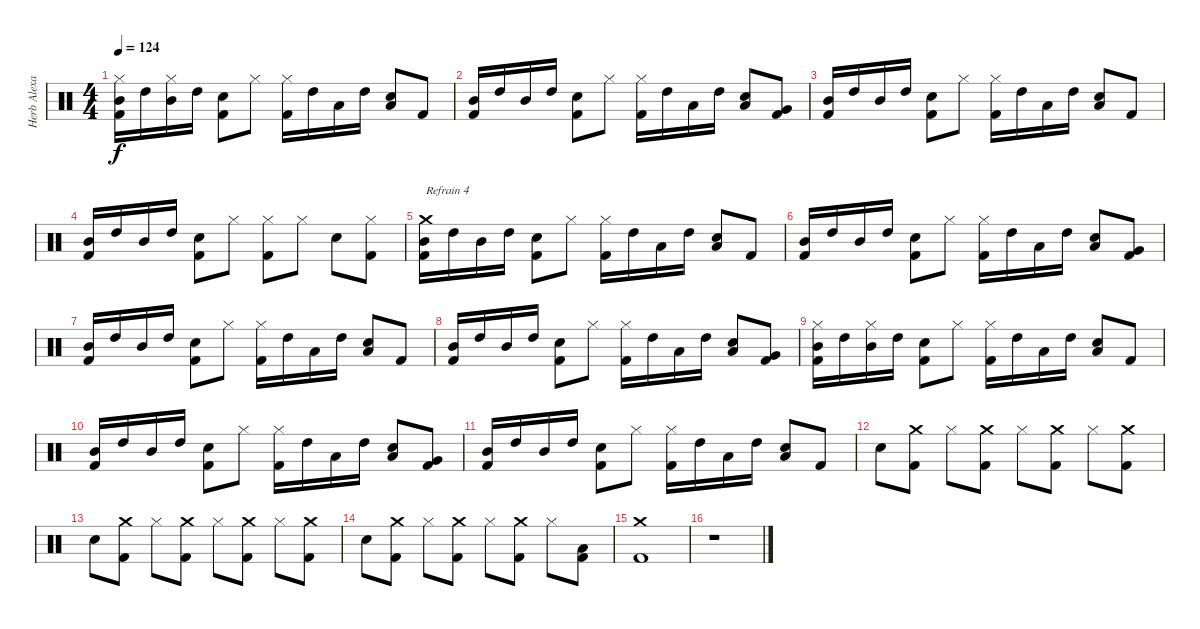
\track ("Herb Alexander" "Herb Alexa") {instrument percussion}
\staff {score}
\articulation defaults
\ts (4 4)
\tempo 124
\clef neutral
\ks c
("Mid Tom (hit)" "Hi-Hat (closed)" "Kick (hit) 2").16{dy f} "High Tom (hit)".16 ("Mid Tom (hit)" "Hi-Hat (closed)").16 "High Tom (hit)".16 ("Electric Snare (hit)" "Kick (hit) 2").8 "Hi-Hat (closed)".8 ("Hi-Hat (closed)" "Kick (hit) 2").16 "High Tom (hit)".16 "Low Tom (hit)".16 "High Tom (hit)".16 ("Low Tom (hit)" "Electric Snare (hit)").8 "Kick (hit) 2".8 |
("Mid Tom (hit)" "Kick (hit) 2").16 "High Tom (hit)".16 "Mid Tom (hit)".16 "High Tom (hit)".16 ("Electric Snare (hit)" "Kick (hit) 2").8 "Hi-Hat (closed)".8 ("Hi-Hat (closed)" "Kick (hit) 2").16 "High Tom (hit)".16 "Low Tom (hit)".16 "High Tom (hit)".16 ("Low Tom (hit)" "Electric Snare (hit)").8 ("Very Low Tom (hit)" "Kick (hit) 2").8 |
("Mid Tom (hit)" "Kick (hit) 2").16 "High Tom (hit)".16 "Mid Tom (hit)".16 "High Tom (hit)".16 ("Electric Snare (hit)" "Kick (hit) 2").8 "Hi-Hat (closed)".8 ("Hi-Hat (closed)" "Kick (hit) 2").16 "High Tom (hit)".16 "Low Tom (hit)".16 "High Tom (hit)".16 ("Low Tom (hit)" "Electric Snare (hit)").8 "Kick (hit) 2".8 |
("Mid Tom (hit)" "Kick (hit) 2").16 "High Tom (hit)".16 "Mid Tom (hit)".16 "High Tom (hit)".16 ("Electric Snare (hit)" "Kick (hit) 2").8 "Hi-Hat (closed)".8 ("Hi-Hat (closed)" "Kick (hit) 2").8 "Hi-Hat (closed)".8 "Electric Snare (hit)".8 ("Hi-Hat (closed)" "Kick (hit) 2").8 |
("Crash medium (hit)" "Mid Tom (hit)" "Kick (hit) 2").16{txt "Refrain 4"} "High Tom (hit)".16 "Mid Tom (hit)".16 "High Tom (hit)".16 ("Electric Snare (hit)" "Kick (hit) 2").8 "Hi-Hat (closed)".8 ("Hi-Hat (closed)" "Kick (hit) 2").16 "High Tom (hit)".16 "Low Tom (hit)".16 "High Tom (hit)".16 ("Low Tom (hit)" "Electric Snare (hit)").8 "Kick (hit) 2".8 |
("Mid Tom (hit)" "Kick (hit) 2").16 "High Tom (hit)".16 "Mid Tom (hit)".16 "High Tom (hit)".16 ("Electric Snare (hit)" "Kick (hit) 2").8 "Hi-Hat (closed)".8 ("Hi-Hat (closed)" "Kick (hit) 2").16 "High Tom (hit)".16 "Low Tom (hit)".16 "High Tom (hit)".16 ("Low Tom (hit)" "Electric Snare (hit)").8 ("Very Low Tom (hit)" "Kick (hit) 2").8 |
("Mid Tom (hit)" "Kick (hit) 2").16 "High Tom (hit)".16 "Mid Tom (hit)".16 "High Tom (hit)".16 ("Electric Snare (hit)" "Kick (hit) 2").8 "Hi-Hat (closed)".8 ("Hi-Hat (closed)" "Kick (hit) 2").16 "High Tom (hit)".16 "Low Tom (hit)".16 "High Tom (hit)".16 ("Low Tom (hit)" "Electric Snare (hit)").8 "Kick (hit) 2".8 |
("Mid Tom (hit)" "Kick (hit) 2").16 "High Tom (hit)".16 "Mid Tom (hit)".16 "High Tom (hit)".16 ("Electric Snare (hit)" "Kick (hit) 2").8 "Hi-Hat (closed)".8 ("Hi-Hat (closed)" "Kick (hit) 2").16 "High Tom (hit)".16 "Low Tom (hit)".16 "High Tom (hit)".16 ("Low Tom (hit)" "Electric Snare (hit)").8 ("Very Low Tom (hit)" "Kick (hit) 2").8 |
("Mid Tom (hit)" "Hi-Hat (closed)" "Kick (hit) 2").16 "High Tom (hit)".16 ("Mid Tom (hit)" "Hi-Hat (closed)").16 "High Tom (hit)".16 ("Electric Snare (hit)" "Kick (hit) 2").8 "Hi-Hat (closed)".8 ("Hi-Hat (closed)" "Kick (hit) 2").16 "High Tom (hit)".16 "Low Tom (hit)".16 "High Tom (hit)".16 ("Low Tom (hit)" "Electric Snare (hit)").8 "Kick (hit) 2".8 |
("Mid Tom (hit)" "Kick (hit) 2").16 "High Tom (hit)".16 "Mid Tom (hit)".16 "High Tom (hit)".16 ("Electric Snare (hit)" "Kick (hit) 2").8 "Hi-Hat (closed)".8 ("Hi-Hat (closed)" "Kick (hit) 2").16 "High Tom (hit)".16 "Low Tom (hit)".16 "High Tom (hit)".16 ("Low Tom (hit)" "Electric Snare (hit)").8 ("Very Low Tom (hit)" "Kick (hit) 2").8 |
("Mid Tom (hit)" "Kick (hit) 2").16 "High Tom (hit)".16 "Mid Tom (hit)".16 "High Tom (hit)".16 ("Electric Snare (hit)" "Kick (hit) 2").8 "Hi-Hat (closed)".8 ("Hi-Hat (closed)" "Kick (hit) 2").16 "High Tom (hit)".16 "Low Tom (hit)".16 "High Tom (hit)".16 ("Low Tom (hit)" "Electric Snare (hit)").8 "Kick (hit) 2".8 |
"Electric Snare (hit)".8 ("Crash medium (hit)" "Kick (hit) 2").8 "Hi-Hat (closed)".8 ("Crash medium (hit)" "Kick (hit) 2").8 "Hi-Hat (closed)".8 ("Crash medium (hit)" "Kick (hit) 2").8 "Hi-Hat (closed)".8 ("Crash medium (hit)" "Kick (hit) 2").8 |
"Electric Snare (hit)".8 ("Crash medium (hit)" "Kick (hit) 2").8 "Hi-Hat (closed)".8 ("Crash medium (hit)" "Kick (hit) 2").8 "Hi-Hat (closed)".8 ("Crash medium (hit)" "Kick (hit) 2").8 "Hi-Hat (closed)".8 ("Crash medium (hit)" "Kick (hit) 2").8 |
"Electric Snare (hit)".8 ("Crash medium (hit)" "Kick (hit) 2").8 "Hi-Hat (closed)".8 ("Crash medium (hit)" "Kick (hit) 2").8 "Hi-Hat (closed)".8 ("Crash medium (hit)" "Kick (hit) 2").8 "Hi-Hat (closed)".8 ("Low Floor Tom (hit)" "Kick (hit) 2").8 |
("Crash medium (hit)" "Kick (hit) 2").1 |
r.1
